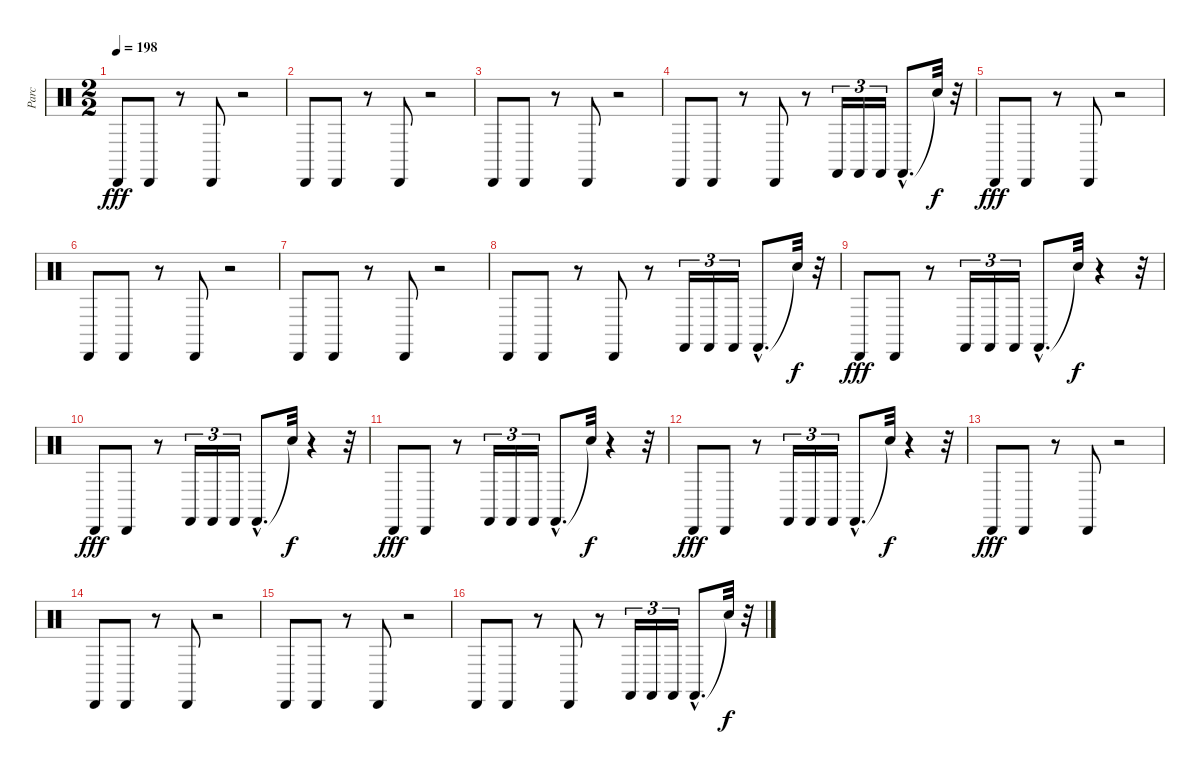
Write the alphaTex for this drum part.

\track ("Parc" "Parc") {instrument percussion}
\staff {score}
\articulation defaults
\ts (2 2)
\tempo 198
\clef neutral
\ks c "Cabasa (hit)".8{dy fff} "Cabasa (hit)".8
r.8 "Cabasa (hit)".8 r.2 |
"Cabasa (hit)".8 "Cabasa (hit)".8 r.8 "Cabasa (hit)".8 r.2 |
"Cabasa (hit)".8 "Cabasa (hit)".8 r.8 "Cabasa (hit)".8 r.2 |
"Cabasa (hit)".8 "Cabasa (hit)".8 r.8 "Cabasa (hit)".8 r.8 "Castanets (hit)".16{tu (3 2)} "Castanets (hit)".16{tu (3 2)} "Castanets (hit)".16{tu (3 2)} "Castanets (hit)"{hac}.8{d} "Snare (hit)"{t}.32{dy f} r.32 |
"Cabasa (hit)".8{dy fff} "Cabasa (hit)".8 r.8 "Cabasa (hit)".8 r.2 |
"Cabasa (hit)".8 "Cabasa (hit)".8 r.8 "Cabasa (hit)".8 r.2 |
"Cabasa (hit)".8 "Cabasa (hit)".8 r.8 "Cabasa (hit)".8 r.2 |
"Cabasa (hit)".8 "Cabasa (hit)".8 r.8 "Cabasa (hit)".8 r.8 "Castanets (hit)".16{tu (3 2)} "Castanets (hit)".16{tu (3 2)} "Castanets (hit)".16{tu (3 2)} "Castanets (hit)"{hac}.8{d} "Snare (hit)"{t}.32{dy f} r.32 |
"Cabasa (hit)".8{dy fff} "Cabasa (hit)".8 r.8 "Castanets (hit)".16{tu (3 2)} "Castanets (hit)".16{tu (3 2)} "Castanets (hit)".16{tu (3 2)} "Castanets (hit)"{hac}.8{d} "Snare (hit)"{t}.32{dy f} r.4 r.32 |
"Cabasa (hit)".8{dy fff} "Cabasa (hit)".8 r.8 "Castanets (hit)".16{tu (3 2)} "Castanets (hit)".16{tu (3 2)} "Castanets (hit)".16{tu (3 2)} "Castanets (hit)"{hac}.8{d} "Snare (hit)"{t}.32{dy f} r.4 r.32 |
"Cabasa (hit)".8{dy fff} "Cabasa (hit)".8 r.8 "Castanets (hit)".16{tu (3 2)} "Castanets (hit)".16{tu (3 2)} "Castanets (hit)".16{tu (3 2)} "Castanets (hit)"{hac}.8{d} "Snare (hit)"{t}.32{dy f} r.4 r.32 |
"Cabasa (hit)".8{dy fff} "Cabasa (hit)".8 r.8 "Castanets (hit)".16{tu (3 2)} "Castanets (hit)".16{tu (3 2)} "Castanets (hit)".16{tu (3 2)} "Castanets (hit)"{hac}.8{d} "Snare (hit)"{t}.32{dy f} r.4 r.32 |
"Cabasa (hit)".8{dy fff} "Cabasa (hit)".8 r.8 "Cabasa (hit)".8 r.2 |
"Cabasa (hit)".8 "Cabasa (hit)".8 r.8 "Cabasa (hit)".8 r.2 |
"Cabasa (hit)".8 "Cabasa (hit)".8 r.8 "Cabasa (hit)".8 r.2 |
"Cabasa (hit)".8 "Cabasa (hit)".8 r.8 "Cabasa (hit)".8 r.8 "Castanets (hit)".16{tu (3 2)} "Castanets (hit)".16{tu (3 2)} "Castanets (hit)".16{tu (3 2)} "Castanets (hit)"{hac}.8{d} "Snare (hit)"{t}.32{dy f} r.32
